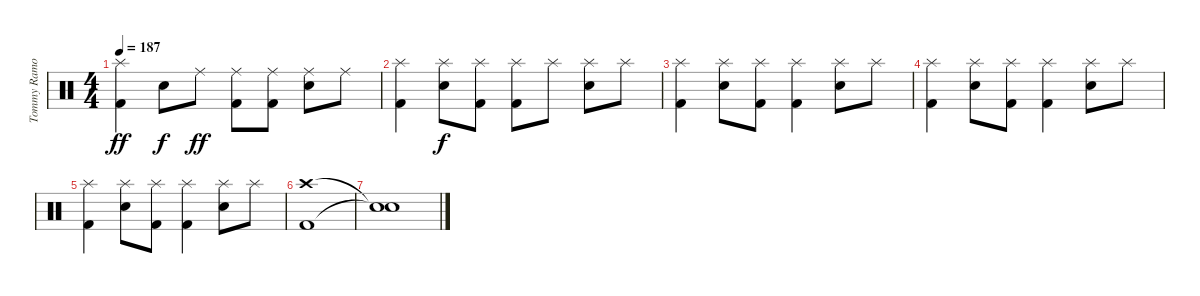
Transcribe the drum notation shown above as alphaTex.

\track ("Tommy Ramone" "Tommy Ramo") {instrument percussion}
\staff {score}
\articulation defaults
\ts (4 4)
\tempo 187
\clef neutral
\ks c
("Kick (hit) 2" "Splash (hit)").4{dy ff} "Snare (hit) 2".8{dy f} "Ride (middle)".8{dy ff} ("Kick (hit) 2" "Ride (middle)").8 ("Kick (hit) 2" "Ride (middle)").8 ("Snare (hit) 2" "Ride (middle)").8 "Ride (middle)".8 |
("Kick (hit) 2" "Splash (hit)").4 ("Snare (hit) 2" "Splash (hit)").8{dy f} ("Kick (hit) 2" "Splash (hit)").8 ("Kick (hit) 2" "Splash (hit)").8 "Splash (hit)".8{bd 240} ("Snare (hit) 2" "Splash (hit)").8 "Splash (hit)".8{bd 240} |
("Kick (hit) 2" "Splash (hit)").4 ("Snare (hit) 2" "Splash (hit)").8 ("Kick (hit) 2" "Splash (hit)").8{bd 240} ("Kick (hit) 2" "Splash (hit)").4 ("Snare (hit) 2" "Splash (hit)").8 "Splash (hit)".8 |
("Kick (hit) 2" "Splash (hit)").4 ("Snare (hit) 2" "Splash (hit)").8 ("Kick (hit) 2" "Splash (hit)").8{bd 240} ("Kick (hit) 2" "Splash (hit)").4 ("Snare (hit) 2" "Splash (hit)").8 "Splash (hit)".8 |
("Kick (hit) 2" "Splash (hit)").4 ("Snare (hit) 2" "Splash (hit)").8 ("Kick (hit) 2" "Splash (hit)").8{bd 240} ("Kick (hit) 2" "Splash (hit)").4 ("Snare (hit) 2" "Splash (hit)").8 "Splash (hit)".8 |
("Kick (hit) 2" "Crash high (hit)").1 |
("Snare (hit)"{t} "Snare (hit)"{t}).1
